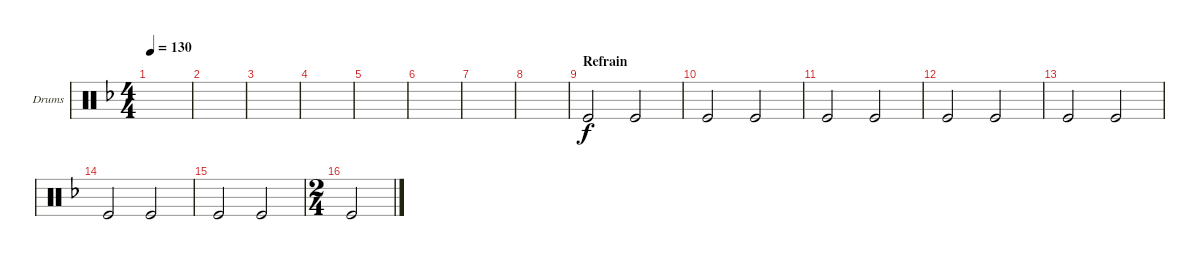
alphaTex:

\defaultSystemsLayout 4
\bracketExtendMode groupsimilarinstruments
\firstSystemTrackNameOrientation horizontal
\otherSystemsTrackNameOrientation horizontal
\track ("Drumkit" "Drums") {instrument percussion}
\staff {score}
\articulation defaults
\ts (4 4)
\tempo 130
\clef neutral
\ks dminor
|
|
|
|
|
|
|
|
\section ("" "Refrain")
"Kick (hit)".2 "Kick (hit)".2 |
"Kick (hit)".2 "Kick (hit)".2 |
"Kick (hit)".2 "Kick (hit)".2 |
"Kick (hit)".2 "Kick (hit)".2 |
"Kick (hit)".2 "Kick (hit)".2 |
"Kick (hit)".2 "Kick (hit)".2 |
"Kick (hit)".2 "Kick (hit)".2 |
\ts (2 4)
"Kick (hit)".2
